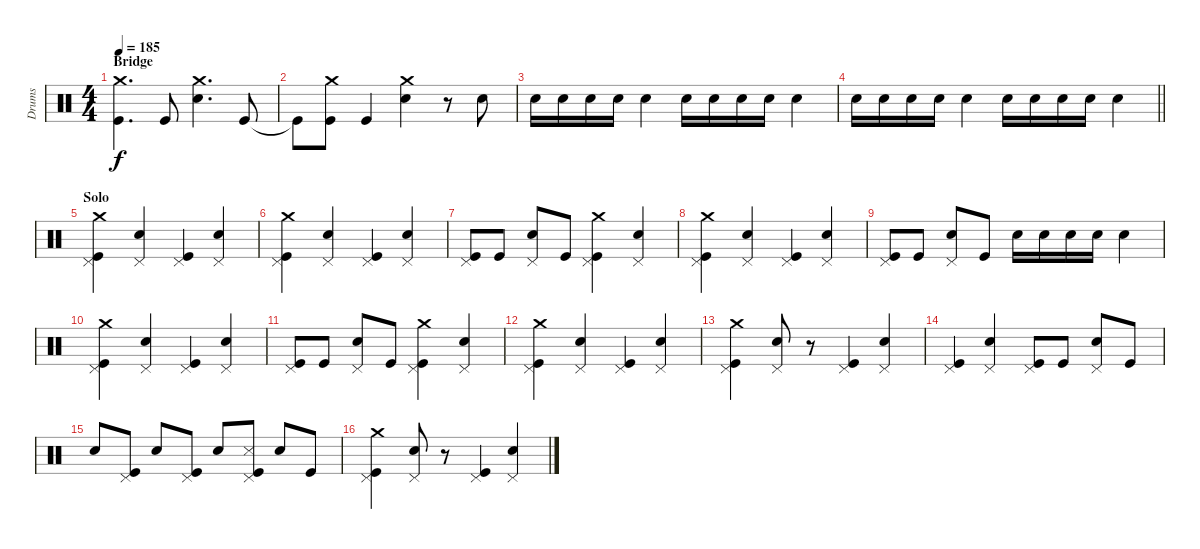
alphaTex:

\track ("Drums" "Drums") {instrument percussion}
\staff {score}
\articulation defaults
\ts (4 4)
\section ("" "Bridge")
\tempo 185
\clef neutral
\ks c
("Crash medium (hit)" "Kick (hit)").4{d dy f} "Kick (hit)".8 ("Crash medium (hit)" "Snare (hit) 2").4{d} "Kick (hit)".8 |
"Kick (hit)"{t}.8 ("Crash medium (hit)" "Kick (hit)").8 "Kick (hit)".4 ("Crash medium (hit)" "Snare (hit) 2").4 r.8 "Snare (hit) 2".8 |
"Snare (hit) 2".16 "Snare (hit) 2".16 "Snare (hit) 2".16 "Snare (hit) 2".16 "Snare (hit) 2".4 "Snare (hit) 2".16 "Snare (hit) 2".16 "Snare (hit) 2".16 "Snare (hit) 2".16 "Snare (hit) 2".4 |
\barLineRight lightlight "Snare (hit) 2".16 "Snare (hit) 2".16 "Snare (hit) 2".16 "Snare (hit) 2".16 "Snare (hit) 2".4 "Snare (hit) 2".16 "Snare (hit) 2".16 "Snare (hit) 2".16 "Snare (hit) 2".16 "Snare (hit) 2".4
|
\section ("" "Solo")
("Pedal Hi-Hat (hit)" "Crash medium (hit)" "Kick (hit)").4 ("Pedal Hi-Hat (hit)" "Snare (hit) 2").4 ("Pedal Hi-Hat (hit)" "Kick (hit)").4 ("Pedal Hi-Hat (hit)" "Snare (hit) 2").4 |
("Pedal Hi-Hat (hit)" "Crash medium (hit)" "Kick (hit)").4 ("Pedal Hi-Hat (hit)" "Snare (hit) 2").4 ("Pedal Hi-Hat (hit)" "Kick (hit)").4 ("Pedal Hi-Hat (hit)" "Snare (hit) 2").4 |
("Pedal Hi-Hat (hit)" "Kick (hit)").8 "Kick (hit)".8 ("Pedal Hi-Hat (hit)" "Snare (hit) 2").8 "Kick (hit)".8 ("Pedal Hi-Hat (hit)" "Crash medium (hit)" "Kick (hit)").4 ("Pedal Hi-Hat (hit)" "Snare (hit) 2").4 |
("Pedal Hi-Hat (hit)" "Crash medium (hit)" "Kick (hit)").4 ("Pedal Hi-Hat (hit)" "Snare (hit) 2").4 ("Pedal Hi-Hat (hit)" "Kick (hit)").4 ("Pedal Hi-Hat (hit)" "Snare (hit) 2").4 |
("Pedal Hi-Hat (hit)" "Kick (hit)").8 "Kick (hit)".8 ("Pedal Hi-Hat (hit)" "Snare (hit) 2").8 "Kick (hit)".8 "Snare (hit) 2".16 "Snare (hit) 2".16 "Snare (hit) 2".16 "Snare (hit) 2".16 "Snare (hit) 2".4 |
("Pedal Hi-Hat (hit)" "Crash medium (hit)" "Kick (hit)").4 ("Pedal Hi-Hat (hit)" "Snare (hit) 2").4 ("Pedal Hi-Hat (hit)" "Kick (hit)").4 ("Pedal Hi-Hat (hit)" "Snare (hit) 2").4 |
("Pedal Hi-Hat (hit)" "Kick (hit)").8 "Kick (hit)".8 ("Pedal Hi-Hat (hit)" "Snare (hit) 2").8 "Kick (hit)".8 ("Pedal Hi-Hat (hit)" "Crash medium (hit)" "Kick (hit)").4 ("Pedal Hi-Hat (hit)" "Snare (hit) 2").4 |
("Pedal Hi-Hat (hit)" "Crash medium (hit)" "Kick (hit)").4 ("Pedal Hi-Hat (hit)" "Snare (hit) 2").4 ("Pedal Hi-Hat (hit)" "Kick (hit)").4 ("Pedal Hi-Hat (hit)" "Snare (hit) 2").4 |
("Pedal Hi-Hat (hit)" "Crash medium (hit)" "Kick (hit)").4 ("Pedal Hi-Hat (hit)" "Snare (hit) 2").8 r.8 ("Pedal Hi-Hat (hit)" "Kick (hit)").4 ("Pedal Hi-Hat (hit)" "Snare (hit) 2").4 |
("Pedal Hi-Hat (hit)" "Kick (hit)").4 ("Pedal Hi-Hat (hit)" "Snare (hit) 2").4 ("Pedal Hi-Hat (hit)" "Kick (hit)").8 "Kick (hit)".8 ("Pedal Hi-Hat (hit)" "Snare (hit) 2").8 "Kick (hit)".8 |
"Snare (hit) 2".8 ("Pedal Hi-Hat (hit)" "Kick (hit)").8 "Snare (hit) 2".8 ("Pedal Hi-Hat (hit)" "Kick (hit)").8 "Snare (hit) 2".8 ("Pedal Hi-Hat (hit)" "Snare (side stick) 3" "Kick (hit)").8 "Snare (hit) 2".8 "Kick (hit)".8 |
("Pedal Hi-Hat (hit)" "Crash medium (hit)" "Kick (hit)").4 ("Pedal Hi-Hat (hit)" "Snare (hit) 2").8 r.8 ("Pedal Hi-Hat (hit)" "Kick (hit)").4 ("Pedal Hi-Hat (hit)" "Snare (hit) 2").4
